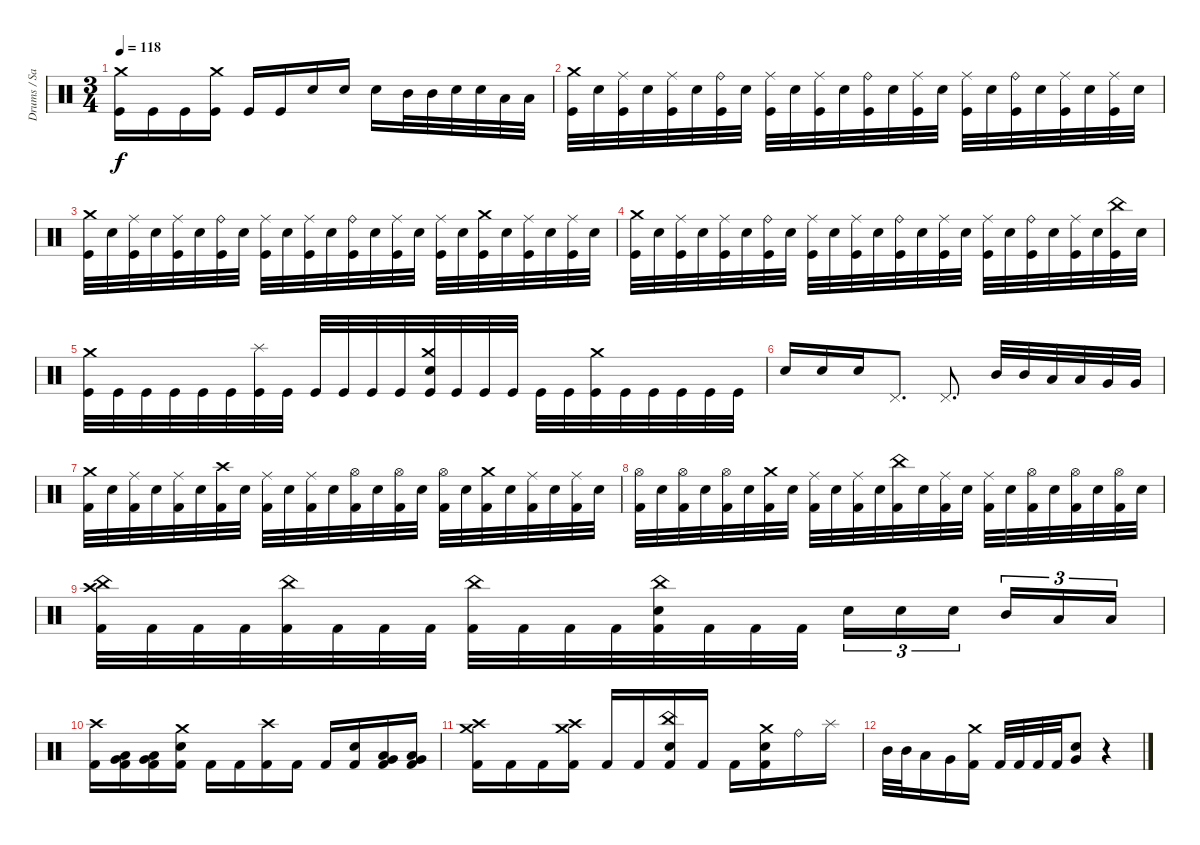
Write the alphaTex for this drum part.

\track ("Drums / Sasha" "Drums / Sa") {instrument percussion}
\staff {score}
\articulation defaults
\ts (3 4)
\tempo 118
\clef neutral
\ks c
("Kick (hit)" "Crash medium (hit)").16{dy f} "Kick (hit)".16 "Kick (hit)".16 ("Kick (hit)" "Crash medium (hit)").16 "Kick (hit)".16 "Kick (hit)".16 "Snare (hit) 2".16 "Snare (hit) 2".16 "Snare (hit) 2".16 "Mid Tom (hit)".32 "Mid Tom (hit)".32 "Electric Snare (hit)".32 "Electric Snare (hit)".32 "Low Tom (hit)".32 "Low Tom (hit)".32 |
("Kick (hit)" "Crash medium (hit)").32 "Snare (hit) 2".32 ("Kick (hit)" "Ride (middle)").32 "Snare (hit) 2".32 ("Kick (hit)" "Ride (middle)").32 "Snare (hit) 2".32 ("Kick (hit)" "Ride (bell)").32 "Snare (hit) 2".32 ("Kick (hit)" "Ride (middle)").32 "Snare (hit) 2".32 ("Kick (hit)" "Ride (middle)").32 "Snare (hit) 2".32 ("Kick (hit)" "Ride (bell)").32 "Snare (hit) 2".32 ("Kick (hit)" "Ride (middle)").32 "Snare (hit) 2".32 ("Kick (hit)" "Ride (middle)").32 "Snare (hit) 2".32 ("Kick (hit)" "Ride (bell)").32 "Snare (hit) 2".32 ("Kick (hit)" "Ride (middle)").32 "Snare (hit) 2".32 ("Kick (hit)" "Ride (middle)").32 "Snare (hit) 2".32 |
("Kick (hit)" "Crash medium (hit)").32 "Snare (hit) 2".32 ("Kick (hit)" "Ride (middle)").32 "Snare (hit) 2".32 ("Kick (hit)" "Ride (middle)").32 "Snare (hit) 2".32 ("Kick (hit)" "Ride (bell)").32 "Snare (hit) 2".32 ("Kick (hit)" "Ride (middle)").32 "Snare (hit) 2".32 ("Kick (hit)" "Ride (middle)").32 "Snare (hit) 2".32 ("Kick (hit)" "Ride (bell)").32 "Snare (hit) 2".32 ("Kick (hit)" "Ride (middle)").32 "Snare (hit) 2".32 ("Kick (hit)" "Ride (middle)").32 "Snare (hit) 2".32 ("Kick (hit)" "Crash medium (hit)").32 "Snare (hit) 2".32 ("Kick (hit)" "Ride (middle)").32 "Snare (hit) 2".32 ("Kick (hit)" "Ride (middle)").32 "Snare (hit) 2".32 |
("Kick (hit)" "Crash medium (hit)").32 "Snare (hit) 2".32 ("Kick (hit)" "Ride (middle)").32 "Snare (hit) 2".32 ("Kick (hit)" "Ride (middle)").32 "Snare (hit) 2".32 ("Kick (hit)" "Ride (bell)").32 "Snare (hit) 2".32 ("Kick (hit)" "Ride (middle)").32 "Snare (hit) 2".32 ("Kick (hit)" "Ride (middle)").32 "Snare (hit) 2".32 ("Kick (hit)" "Ride (bell)").32 "Snare (hit) 2".32 ("Kick (hit)" "Ride (middle)").32 "Snare (hit) 2".32 ("Kick (hit)" "Ride (middle)").32 "Snare (hit) 2".32 ("Kick (hit)" "Ride (bell)").32 "Snare (hit) 2".32 ("Kick (hit)" "Ride (middle)").32 "Snare (hit) 2".32 ("Kick (hit)" "China (hit)").32 "Snare (hit) 2".32 |
("Kick (hit)" "Crash medium (hit)").32 "Kick (hit)".32 "Kick (hit)".32 "Kick (hit)".32 "Kick (hit)".32 "Kick (hit)".32 ("Kick (hit)" "Splash (hit)").32 "Kick (hit)".32 "Kick (hit)".32 "Kick (hit)".32 "Kick (hit)".32 "Kick (hit)".32 ("Kick (hit)" "Crash medium (hit)" "Snare (hit) 2").32 "Kick (hit)".32 "Kick (hit)".32 "Kick (hit)".32 "Kick (hit)".32 "Kick (hit)".32 ("Kick (hit)" "Crash medium (hit)").32 "Kick (hit)".32 "Kick (hit)".32 "Kick (hit)".32 "Kick (hit)".32 "Kick (hit)".32 |
"Electric Snare (hit)".16 "Electric Snare (hit)".16 "Electric Snare (hit)".16 "Pedal Hi-Hat (hit)".8{d} "Pedal Hi-Hat (hit)".8{d} "Mid Tom (hit)".32 "Mid Tom (hit)".32 "Low Tom (hit)".32 "Low Tom (hit)".32 "Very Low Tom (hit)".32 "Very Low Tom (hit)".32 |
("Crash medium (hit)" "Kick (hit) 2").32 "Electric Snare (hit)".32 ("Ride (middle)" "Kick (hit) 2").32 "Electric Snare (hit)".32 ("Ride (middle)" "Kick (hit) 2").32 "Electric Snare (hit)".32 ("Crash high (hit)" "Kick (hit) 2").32 "Electric Snare (hit)".32 ("Ride (middle)" "Kick (hit) 2").32 "Electric Snare (hit)".32 ("Ride (middle)" "Kick (hit) 2").32 "Electric Snare (hit)".32 ("Hi-Hat (open)" "Kick (hit) 2").32 "Electric Snare (hit)".32 ("Hi-Hat (open)" "Kick (hit) 2").32 "Electric Snare (hit)".32 ("Hi-Hat (open)" "Kick (hit) 2").32 "Electric Snare (hit)".32 ("Crash medium (hit)" "Kick (hit) 2").32 "Electric Snare (hit)".32 ("Ride (middle)" "Kick (hit) 2").32 "Electric Snare (hit)".32 ("Ride (middle)" "Kick (hit) 2").32 "Electric Snare (hit)".32 |
("Hi-Hat (open)" "Kick (hit) 2").32 "Electric Snare (hit)".32 ("Hi-Hat (open)" "Kick (hit) 2").32 "Electric Snare (hit)".32 ("Hi-Hat (open)" "Kick (hit) 2").32 "Electric Snare (hit)".32 ("Crash medium (hit)" "Kick (hit) 2").32 "Electric Snare (hit)".32 ("Ride (middle)" "Kick (hit) 2").32 "Electric Snare (hit)".32 ("Ride (middle)" "Kick (hit) 2").32 "Electric Snare (hit)".32 ("China (hit)" "Kick (hit) 2").32 "Electric Snare (hit)".32 ("Ride (middle)" "Kick (hit) 2").32 "Electric Snare (hit)".32 ("Ride (middle)" "Kick (hit) 2").32 "Electric Snare (hit)".32 ("Hi-Hat (open)" "Kick (hit) 2").32 "Electric Snare (hit)".32 ("Hi-Hat (open)" "Kick (hit) 2").32 "Electric Snare (hit)".32 ("Hi-Hat (open)" "Kick (hit) 2").32 "Electric Snare (hit)".32 |
("China (hit)" "Crash high (hit)" "Kick (hit) 2").32 "Kick (hit) 2".32 "Kick (hit) 2".32 "Kick (hit) 2".32 ("China (hit)" "Kick (hit) 2").32 "Kick (hit) 2".32 "Kick (hit) 2".32 "Kick (hit) 2".32 ("China (hit)" "Kick (hit) 2").32 "Kick (hit) 2".32 "Kick (hit) 2".32 "Kick (hit) 2".32 ("China (hit)" "Electric Snare (hit)" "Kick (hit) 2").32 "Kick (hit) 2".32 "Kick (hit) 2".32 "Kick (hit) 2".32 "Electric Snare (hit)".16{tu (3 2)} "Electric Snare (hit)".16{tu (3 2)} "Electric Snare (hit)".16{tu (3 2) beam splitsecondary} "Mid Tom (hit)".16{tu (3 2)} "Low Tom (hit)".16{tu (3 2)} "Low Tom (hit)".16{tu (3 2)} |
("Crash high (hit)" "Kick (hit) 2").16 ("Low Tom (hit)" "Very Low Tom (hit)" "Kick (hit) 2").16 ("Low Tom (hit)" "Very Low Tom (hit)" "Kick (hit) 2").16 ("Crash medium (hit)" "Electric Snare (hit)" "Kick (hit) 2").16 "Kick (hit) 2".16 "Kick (hit) 2".16 ("Crash high (hit)" "Kick (hit) 2").16 "Kick (hit) 2".16 "Kick (hit) 2".16 ("Electric Snare (hit)" "Kick (hit) 2").16 ("Low Tom (hit)" "Very Low Tom (hit)" "Kick (hit) 2").16 ("Low Tom (hit)" "Very Low Tom (hit)" "Kick (hit) 2").16 |
("Crash high (hit)" "Crash medium (hit)" "Kick (hit) 2").16 "Kick (hit) 2".16 "Kick (hit) 2".16 ("Crash high (hit)" "Crash medium (hit)" "Kick (hit) 2").16 "Kick (hit) 2".16 "Kick (hit) 2".16 ("China (hit)" "Electric Snare (hit)" "Kick (hit) 2").16 "Kick (hit) 2".16 "Kick (hit) 2".16 ("Crash medium (hit)" "Electric Snare (hit)" "Kick (hit) 2").16 "Ride (bell)".16 "Splash (hit)".16 |
"Mid Tom (hit)".32 "Mid Tom (hit)".32 "Low Tom (hit)".16 "Very Low Tom (hit)".16 ("Crash medium (hit)" "Kick (hit) 2").16 "Kick (hit) 2".32 "Kick (hit) 2".32 "Kick (hit) 2".32 "Kick (hit) 2".32 ("Electric Snare (hit)" "Very Low Tom (hit)").8 r.4
